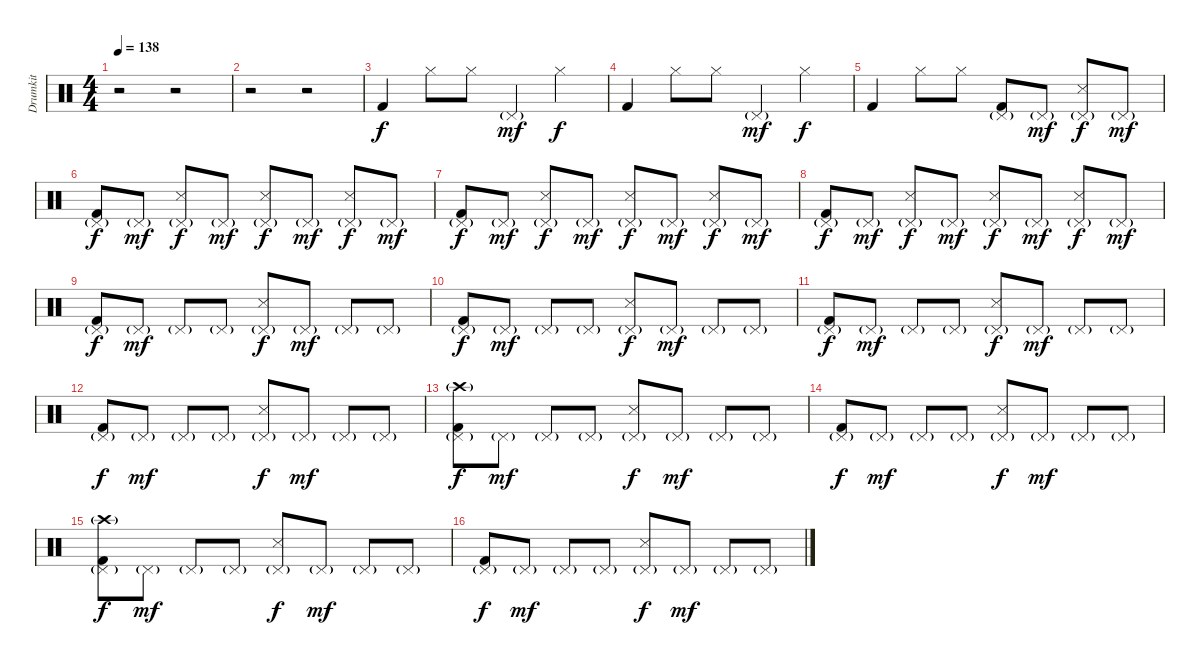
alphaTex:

\track ("Drumkit" "Drumkit") {instrument percussion}
\staff {score}
\articulation defaults
\ts (4 4)
\tempo 138
\clef neutral
\ks c
r.2{dy mf} r.2 |
r.2 r.2 |
"Kick (hit) 2".4{dy f} "Hi-Hat (closed)".8 "Hi-Hat (closed)".8 "Pedal Hi-Hat (hit)"{g}.4{dy mf} "Hi-Hat (closed)".4{dy f} |
"Kick (hit) 2".4 "Hi-Hat (closed)".8 "Hi-Hat (closed)".8 "Pedal Hi-Hat (hit)"{g}.4{dy mf} "Hi-Hat (closed)".4{dy f} |
"Kick (hit) 2".4 "Hi-Hat (closed)".8 "Hi-Hat (closed)".8 ("Kick (hit) 2" "Pedal Hi-Hat (hit)"{g}).8 "Pedal Hi-Hat (hit)"{g}.8{dy mf} ("Snare (side stick) 3" "Pedal Hi-Hat (hit)"{g}).8{dy f} "Pedal Hi-Hat (hit)"{g}.8{dy mf} |
("Kick (hit) 2" "Pedal Hi-Hat (hit)"{g}).8{dy f} "Pedal Hi-Hat (hit)"{g}.8{dy mf} ("Snare (side stick) 3" "Pedal Hi-Hat (hit)"{g}).8{dy f} "Pedal Hi-Hat (hit)"{g}.8{dy mf} ("Snare (side stick) 3" "Pedal Hi-Hat (hit)"{g}).8{dy f} "Pedal Hi-Hat (hit)"{g}.8{dy mf} ("Snare (side stick) 3" "Pedal Hi-Hat (hit)"{g}).8{dy f} "Pedal Hi-Hat (hit)"{g}.8{dy mf} |
("Kick (hit) 2" "Pedal Hi-Hat (hit)"{g}).8{dy f} "Pedal Hi-Hat (hit)"{g}.8{dy mf} ("Snare (side stick) 3" "Pedal Hi-Hat (hit)"{g}).8{dy f} "Pedal Hi-Hat (hit)"{g}.8{dy mf} ("Snare (side stick) 3" "Pedal Hi-Hat (hit)"{g}).8{dy f} "Pedal Hi-Hat (hit)"{g}.8{dy mf} ("Snare (side stick) 3" "Pedal Hi-Hat (hit)"{g}).8{dy f} "Pedal Hi-Hat (hit)"{g}.8{dy mf} |
("Kick (hit) 2" "Pedal Hi-Hat (hit)"{g}).8{dy f} "Pedal Hi-Hat (hit)"{g}.8{dy mf} ("Snare (side stick) 3" "Pedal Hi-Hat (hit)"{g}).8{dy f} "Pedal Hi-Hat (hit)"{g}.8{dy mf} ("Snare (side stick) 3" "Pedal Hi-Hat (hit)"{g}).8{dy f} "Pedal Hi-Hat (hit)"{g}.8{dy mf} ("Snare (side stick) 3" "Pedal Hi-Hat (hit)"{g}).8{dy f} "Pedal Hi-Hat (hit)"{g}.8{dy mf} |
("Kick (hit) 2" "Pedal Hi-Hat (hit)"{g}).8{dy f} "Pedal Hi-Hat (hit)"{g}.8{dy mf} "Pedal Hi-Hat (hit)"{g}.8 "Pedal Hi-Hat (hit)"{g}.8 ("Snare (side stick) 3" "Pedal Hi-Hat (hit)"{g}).8{dy f} "Pedal Hi-Hat (hit)"{g}.8{dy mf} "Pedal Hi-Hat (hit)"{g}.8 "Pedal Hi-Hat (hit)"{g}.8 |
("Kick (hit) 2" "Pedal Hi-Hat (hit)"{g}).8{dy f} "Pedal Hi-Hat (hit)"{g}.8{dy mf} "Pedal Hi-Hat (hit)"{g}.8 "Pedal Hi-Hat (hit)"{g}.8 ("Snare (side stick) 3" "Pedal Hi-Hat (hit)"{g}).8{dy f} "Pedal Hi-Hat (hit)"{g}.8{dy mf} "Pedal Hi-Hat (hit)"{g}.8 "Pedal Hi-Hat (hit)"{g}.8 |
("Kick (hit) 2" "Pedal Hi-Hat (hit)"{g}).8{dy f} "Pedal Hi-Hat (hit)"{g}.8{dy mf} "Pedal Hi-Hat (hit)"{g}.8 "Pedal Hi-Hat (hit)"{g}.8 ("Snare (side stick) 3" "Pedal Hi-Hat (hit)"{g}).8{dy f} "Pedal Hi-Hat (hit)"{g}.8{dy mf} "Pedal Hi-Hat (hit)"{g}.8 "Pedal Hi-Hat (hit)"{g}.8 |
("Kick (hit) 2" "Pedal Hi-Hat (hit)"{g}).8{dy f} "Pedal Hi-Hat (hit)"{g}.8{dy mf} "Pedal Hi-Hat (hit)"{g}.8 "Pedal Hi-Hat (hit)"{g}.8 ("Snare (side stick) 3" "Pedal Hi-Hat (hit)"{g}).8{dy f} "Pedal Hi-Hat (hit)"{g}.8{dy mf} "Pedal Hi-Hat (hit)"{g}.8 "Pedal Hi-Hat (hit)"{g}.8 |
("Crash high (hit)"{g} "Kick (hit) 2" "Pedal Hi-Hat (hit)"{g}).8{dy f} "Pedal Hi-Hat (hit)"{g}.8{dy mf} "Pedal Hi-Hat (hit)"{g}.8 "Pedal Hi-Hat (hit)"{g}.8 ("Snare (side stick) 3" "Pedal Hi-Hat (hit)"{g}).8{dy f} "Pedal Hi-Hat (hit)"{g}.8{dy mf} "Pedal Hi-Hat (hit)"{g}.8 "Pedal Hi-Hat (hit)"{g}.8 |
("Kick (hit) 2" "Pedal Hi-Hat (hit)"{g}).8{dy f} "Pedal Hi-Hat (hit)"{g}.8{dy mf} "Pedal Hi-Hat (hit)"{g}.8 "Pedal Hi-Hat (hit)"{g}.8 ("Snare (side stick) 3" "Pedal Hi-Hat (hit)"{g}).8{dy f} "Pedal Hi-Hat (hit)"{g}.8{dy mf} "Pedal Hi-Hat (hit)"{g}.8 "Pedal Hi-Hat (hit)"{g}.8 |
("Crash high (hit)"{g} "Kick (hit) 2" "Pedal Hi-Hat (hit)"{g}).8{dy f} "Pedal Hi-Hat (hit)"{g}.8{dy mf} "Pedal Hi-Hat (hit)"{g}.8 "Pedal Hi-Hat (hit)"{g}.8 ("Snare (side stick) 3" "Pedal Hi-Hat (hit)"{g}).8{dy f} "Pedal Hi-Hat (hit)"{g}.8{dy mf} "Pedal Hi-Hat (hit)"{g}.8 "Pedal Hi-Hat (hit)"{g}.8 |
("Kick (hit) 2" "Pedal Hi-Hat (hit)"{g}).8{dy f} "Pedal Hi-Hat (hit)"{g}.8{dy mf} "Pedal Hi-Hat (hit)"{g}.8 "Pedal Hi-Hat (hit)"{g}.8 ("Snare (side stick) 3" "Pedal Hi-Hat (hit)"{g}).8{dy f} "Pedal Hi-Hat (hit)"{g}.8{dy mf} "Pedal Hi-Hat (hit)"{g}.8 "Pedal Hi-Hat (hit)"{g}.8
